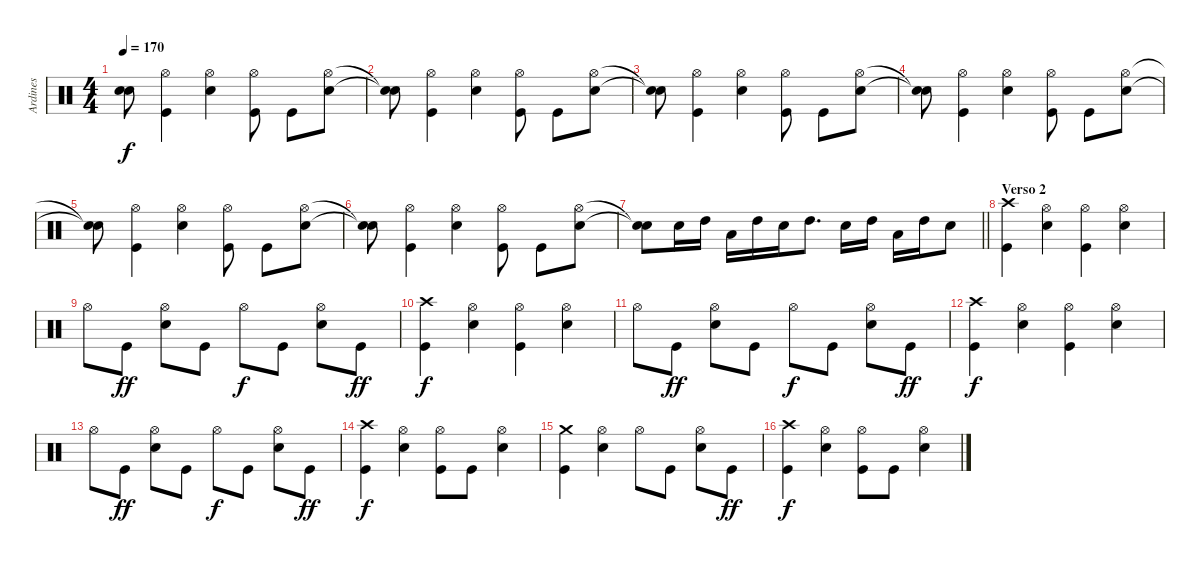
\track ("Ardines" "Ardines") {instrument percussion}
\staff {score}
\articulation defaults
\ts (4 4)
\tempo 170
\clef neutral
\ks c
("Snare (hit)"{t} "Snare (hit)"{t}).8{dy f} ("Kick (hit)" "Hi-Hat (open)").4 ("Snare (hit) 2" "Hi-Hat (open)").4 ("Kick (hit)" "Hi-Hat (open)").8 "Kick (hit)".8 ("Snare (hit) 2" "Hi-Hat (open)").8 |
("Snare (hit)"{t} "Snare (hit)"{t}).8 ("Kick (hit)" "Hi-Hat (open)").4 ("Snare (hit) 2" "Hi-Hat (open)").4 ("Kick (hit)" "Hi-Hat (open)").8 "Kick (hit)".8 ("Snare (hit) 2" "Hi-Hat (open)").8 |
("Snare (hit)"{t} "Snare (hit)"{t}).8 ("Kick (hit)" "Hi-Hat (open)").4 ("Snare (hit) 2" "Hi-Hat (open)").4 ("Kick (hit)" "Hi-Hat (open)").8 "Kick (hit)".8 ("Snare (hit) 2" "Hi-Hat (open)").8 |
("Snare (hit)"{t} "Snare (hit)"{t}).8 ("Kick (hit)" "Hi-Hat (open)").4 ("Snare (hit) 2" "Hi-Hat (open)").4 ("Kick (hit)" "Hi-Hat (open)").8 "Kick (hit)".8 ("Snare (hit) 2" "Hi-Hat (open)").8 |
("Snare (hit)"{t} "Snare (hit)"{t}).8 ("Kick (hit)" "Hi-Hat (open)").4 ("Snare (hit) 2" "Hi-Hat (open)").4 ("Kick (hit)" "Hi-Hat (open)").8 "Kick (hit)".8 ("Snare (hit) 2" "Hi-Hat (open)").8 |
("Snare (hit)"{t} "Snare (hit)"{t}).8 ("Kick (hit)" "Hi-Hat (open)").4 ("Snare (hit) 2" "Hi-Hat (open)").4 ("Kick (hit)" "Hi-Hat (open)").8 "Kick (hit)".8 ("Snare (hit) 2" "Hi-Hat (open)").8 |
\barLineRight lightlight
("Snare (hit)"{t} "Snare (hit)"{t}).8 "Snare (hit) 2".16 "High Tom (hit)".16 "Low Tom (hit)".16 "High Tom (hit)".16 "Snare (hit) 2".16 "High Tom (hit)".8{d} "Snare (hit) 2".16 "High Tom (hit)".16 "Low Tom (hit)".16 "High Tom (hit)".16 "Snare (hit) 2".8 |
\section ("" "Verso 2")
("Kick (hit)" "Crash high (hit)").4 ("Snare (hit) 2" "Hi-Hat (open)").4 ("Kick (hit)" "Hi-Hat (open)").4 ("Snare (hit) 2" "Hi-Hat (open)").4 |
"Hi-Hat (open)".8 "Kick (hit)".8{dy ff} ("Snare (hit) 2" "Hi-Hat (open)").8 "Kick (hit)".8 "Hi-Hat (open)".8{dy f} "Kick (hit)".8 ("Snare (hit) 2" "Hi-Hat (open)").8 "Kick (hit)".8{dy ff} |
("Kick (hit)" "Crash high (hit)").4{dy f} ("Snare (hit) 2" "Hi-Hat (open)").4 ("Kick (hit)" "Hi-Hat (open)").4 ("Snare (hit) 2" "Hi-Hat (open)").4 |
"Hi-Hat (open)".8 "Kick (hit)".8{dy ff} ("Snare (hit) 2" "Hi-Hat (open)").8 "Kick (hit)".8 "Hi-Hat (open)".8{dy f} "Kick (hit)".8 ("Snare (hit) 2" "Hi-Hat (open)").8 "Kick (hit)".8{dy ff} |
("Kick (hit)" "Crash high (hit)").4{dy f} ("Snare (hit) 2" "Hi-Hat (open)").4 ("Kick (hit)" "Hi-Hat (open)").4 ("Snare (hit) 2" "Hi-Hat (open)").4 |
"Hi-Hat (open)".8 "Kick (hit)".8{dy ff} ("Snare (hit) 2" "Hi-Hat (open)").8 "Kick (hit)".8 "Hi-Hat (open)".8{dy f} "Kick (hit)".8 ("Snare (hit) 2" "Hi-Hat (open)").8 "Kick (hit)".8{dy ff} |
("Kick (hit)" "Crash high (hit)").4{dy f} ("Snare (hit) 2" "Hi-Hat (open)").4 ("Kick (hit)" "Hi-Hat (open)").8 "Kick (hit)".8 ("Snare (hit) 2" "Hi-Hat (open)").4 |
("Kick (hit)" "Crash medium (hit)").4 ("Snare (hit) 2" "Hi-Hat (open)").4 "Hi-Hat (open)".8 "Kick (hit)".8 ("Snare (hit) 2" "Hi-Hat (open)").8 "Kick (hit)".8{dy ff} |
("Kick (hit)" "Crash high (hit)").4{dy f} ("Snare (hit) 2" "Hi-Hat (open)").4 ("Kick (hit)" "Hi-Hat (open)").8 "Kick (hit)".8 ("Snare (hit) 2" "Hi-Hat (open)").4
